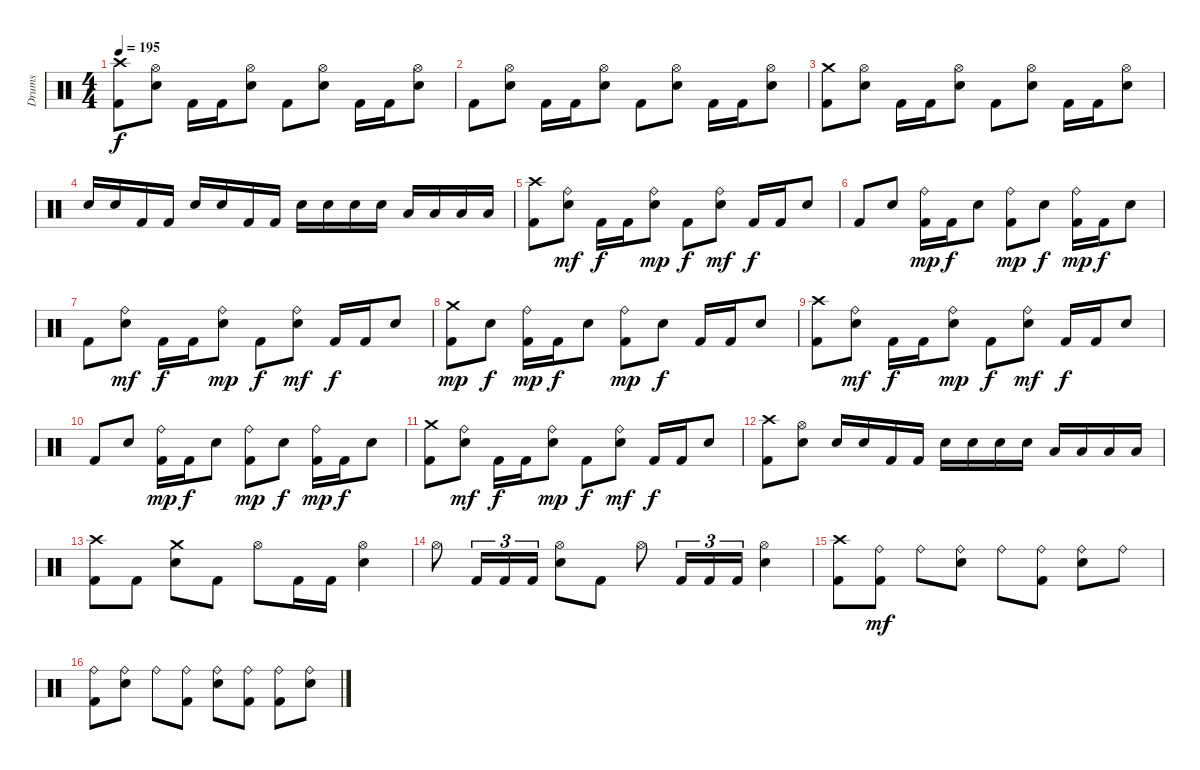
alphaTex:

\track ("Drums" "Drums") {instrument percussion}
\staff {score}
\articulation defaults
\ts (4 4)
\tempo 195
\clef neutral
\ks c
("Crash high (hit)" "Kick (hit) 2").8{dy f} ("Hi-Hat (open)" "Electric Snare (hit)").8 "Kick (hit) 2".16 "Kick (hit) 2".16 ("Hi-Hat (open)" "Electric Snare (hit)").8 "Kick (hit) 2".8 ("Hi-Hat (open)" "Electric Snare (hit)").8 "Kick (hit) 2".16 "Kick (hit) 2".16 ("Hi-Hat (open)" "Electric Snare (hit)").8 |
"Kick (hit) 2".8 ("Hi-Hat (open)" "Electric Snare (hit)").8 "Kick (hit) 2".16 "Kick (hit) 2".16 ("Hi-Hat (open)" "Electric Snare (hit)").8 "Kick (hit) 2".8 ("Hi-Hat (open)" "Electric Snare (hit)").8 "Kick (hit) 2".16 "Kick (hit) 2".16 ("Hi-Hat (open)" "Electric Snare (hit)").8 |
("Crash medium (hit)" "Kick (hit) 2").8 ("Hi-Hat (open)" "Electric Snare (hit)").8 "Kick (hit) 2".16 "Kick (hit) 2".16 ("Hi-Hat (open)" "Electric Snare (hit)").8 "Kick (hit) 2".8 ("Hi-Hat (open)" "Electric Snare (hit)").8 "Kick (hit) 2".16 "Kick (hit) 2".16 ("Hi-Hat (open)" "Electric Snare (hit)").8 |
"Electric Snare (hit)".16 "Electric Snare (hit)".16 "Kick (hit) 2".16 "Kick (hit) 2".16 "Electric Snare (hit)".16 "Electric Snare (hit)".16 "Kick (hit) 2".16 "Kick (hit) 2".16 "Electric Snare (hit)".16 "Electric Snare (hit)".16 "Electric Snare (hit)".16 "Electric Snare (hit)".16 "Low Tom (hit)".16 "Low Tom (hit)".16 "Low Tom (hit)".16 "Low Tom (hit)".16 |
("Crash high (hit)" "Kick (hit) 2").8 ("Ride (bell)" "Electric Snare (hit)").8{dy mf} "Kick (hit) 2".16{dy f} "Kick (hit) 2".16 ("Ride (bell)" "Electric Snare (hit)").8{dy mp} "Kick (hit) 2".8{dy f} ("Ride (bell)" "Electric Snare (hit)").8{dy mf} "Kick (hit) 2".16{dy f} "Kick (hit) 2".16 "Electric Snare (hit)".8 |
"Kick (hit) 2".8 "Electric Snare (hit)".8 ("Ride (bell)" "Kick (hit) 2").16{dy mp} "Kick (hit) 2".16{dy f} "Electric Snare (hit)".8 ("Ride (bell)" "Kick (hit) 2").8{dy mp} "Electric Snare (hit)".8{dy f} ("Ride (bell)" "Kick (hit) 2").16{dy mp} "Kick (hit) 2".16{dy f} "Electric Snare (hit)".8 |
"Kick (hit) 2".8 ("Ride (bell)" "Electric Snare (hit)").8{dy mf} "Kick (hit) 2".16{dy f} "Kick (hit) 2".16 ("Ride (bell)" "Electric Snare (hit)").8{dy mp} "Kick (hit) 2".8{dy f} ("Ride (bell)" "Electric Snare (hit)").8{dy mf} "Kick (hit) 2".16{dy f} "Kick (hit) 2".16 "Electric Snare (hit)".8 |
("Crash medium (hit)" "Kick (hit) 2").8{dy mp} "Electric Snare (hit)".8{dy f} ("Ride (bell)" "Kick (hit) 2").16{dy mp} "Kick (hit) 2".16{dy f} "Electric Snare (hit)".8 ("Ride (bell)" "Kick (hit) 2").8{dy mp} "Electric Snare (hit)".8{dy f} "Kick (hit) 2".16 "Kick (hit) 2".16 "Electric Snare (hit)".8 |
("Crash high (hit)" "Kick (hit) 2").8 ("Ride (bell)" "Electric Snare (hit)").8{dy mf} "Kick (hit) 2".16{dy f} "Kick (hit) 2".16 ("Ride (bell)" "Electric Snare (hit)").8{dy mp} "Kick (hit) 2".8{dy f} ("Ride (bell)" "Electric Snare (hit)").8{dy mf} "Kick (hit) 2".16{dy f} "Kick (hit) 2".16 "Electric Snare (hit)".8 |
"Kick (hit) 2".8 "Electric Snare (hit)".8 ("Ride (bell)" "Kick (hit) 2").16{dy mp} "Kick (hit) 2".16{dy f} "Electric Snare (hit)".8 ("Ride (bell)" "Kick (hit) 2").8{dy mp} "Electric Snare (hit)".8{dy f} ("Ride (bell)" "Kick (hit) 2").16{dy mp} "Kick (hit) 2".16{dy f} "Electric Snare (hit)".8 |
("Crash medium (hit)" "Kick (hit) 2").8 ("Ride (bell)" "Electric Snare (hit)").8{dy mf} "Kick (hit) 2".16{dy f} "Kick (hit) 2".16 ("Ride (bell)" "Electric Snare (hit)").8{dy mp} "Kick (hit) 2".8{dy f} ("Ride (bell)" "Electric Snare (hit)").8{dy mf} "Kick (hit) 2".16{dy f} "Kick (hit) 2".16 "Electric Snare (hit)".8 |
("Crash high (hit)" "Kick (hit) 2").8 ("Hi-Hat (open)" "Electric Snare (hit)").8 "Electric Snare (hit)".16 "Electric Snare (hit)".16 "Kick (hit) 2".16 "Kick (hit) 2".16 "Electric Snare (hit)".16 "Electric Snare (hit)".16 "Electric Snare (hit)".16 "Electric Snare (hit)".16 "Low Tom (hit)".16 "Low Tom (hit)".16 "Low Tom (hit)".16 "Low Tom (hit)".16 |
("Crash high (hit)" "Kick (hit) 2").8 "Kick (hit) 2".8 ("Crash medium (hit)" "Electric Snare (hit)").8 "Kick (hit) 2".8 "Hi-Hat (open)".8 "Kick (hit) 2".16 "Kick (hit) 2".16 ("Hi-Hat (open)" "Electric Snare (hit)").4 |
"Hi-Hat (open)".8 "Kick (hit) 2".16{tu (3 2)} "Kick (hit) 2".16{tu (3 2)} "Kick (hit) 2".16{tu (3 2)} ("Hi-Hat (open)" "Electric Snare (hit)").8 "Kick (hit) 2".8 "Hi-Hat (open)".8 "Kick (hit) 2".16{tu (3 2)} "Kick (hit) 2".16{tu (3 2)} "Kick (hit) 2".16{tu (3 2)} ("Hi-Hat (open)" "Electric Snare (hit)").4 |
("Crash high (hit)" "Kick (hit) 2").8 ("Ride (bell)" "Kick (hit) 2").8{dy mf} "Ride (bell)".8 ("Ride (bell)" "Electric Snare (hit)").8 "Ride (bell)".8 ("Ride (bell)" "Kick (hit) 2").8 ("Ride (bell)" "Electric Snare (hit)").8 "Ride (bell)".8 |
("Ride (bell)" "Kick (hit) 2").8 ("Ride (bell)" "Electric Snare (hit)").8 "Ride (bell)".8 ("Ride (bell)" "Kick (hit) 2").8 ("Ride (bell)" "Electric Snare (hit)").8 ("Ride (bell)" "Kick (hit) 2").8 ("Ride (bell)" "Kick (hit) 2").8 ("Ride (bell)" "Electric Snare (hit)").8
